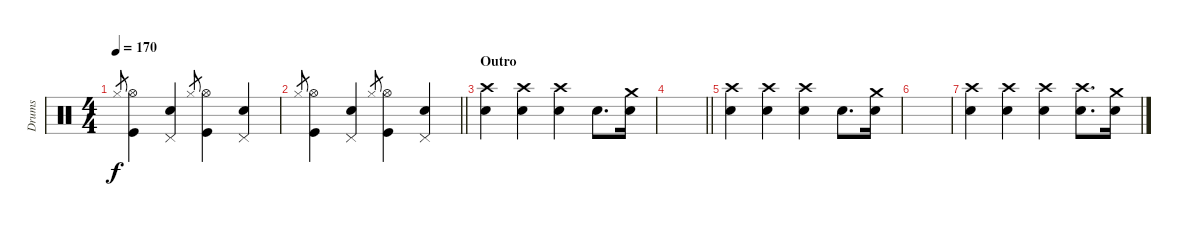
\track ("Drums" "Drums") {instrument percussion}
\staff {score}
\articulation defaults
\ts (4 4)
\tempo 170
\clef neutral
\ks aminor "Hi-Hat (closed)".8{gr dy f}
("Kick (hit)" "Hi-Hat (open)").4 ("Electric Snare (hit)" "Pedal Hi-Hat (hit)").4 "Hi-Hat (closed)".8{gr} ("Kick (hit)" "Hi-Hat (open)").4 ("Electric Snare (hit)" "Pedal Hi-Hat (hit)").4 |
\barLineRight lightlight "Hi-Hat (closed)".8{gr}
("Kick (hit)" "Hi-Hat (open)").4 ("Electric Snare (hit)" "Pedal Hi-Hat (hit)").4 "Hi-Hat (closed)".8{gr} ("Kick (hit)" "Hi-Hat (open)").4 ("Electric Snare (hit)" "Pedal Hi-Hat (hit)").4 |
\section ("" "Outro")
("Electric Snare (hit)" "Crash high (hit)").4 ("Electric Snare (hit)" "Crash high (hit)").4 ("Electric Snare (hit)" "Crash high (hit)").4 "Electric Snare (hit)".8{d} ("Electric Snare (hit)" "Crash medium (hit)").16 |
\barLineRight lightlight
|
("Electric Snare (hit)" "Crash high (hit)").4 ("Electric Snare (hit)" "Crash high (hit)").4 ("Electric Snare (hit)" "Crash high (hit)").4 "Electric Snare (hit)".8{d} ("Electric Snare (hit)" "Crash medium (hit)").16 |
|
("Electric Snare (hit)" "Crash high (hit)").4 ("Electric Snare (hit)" "Crash high (hit)").4 ("Electric Snare (hit)" "Crash high (hit)").4 ("Electric Snare (hit)" "Crash high (hit)").8{d} ("Electric Snare (hit)" "Crash medium (hit)").16
